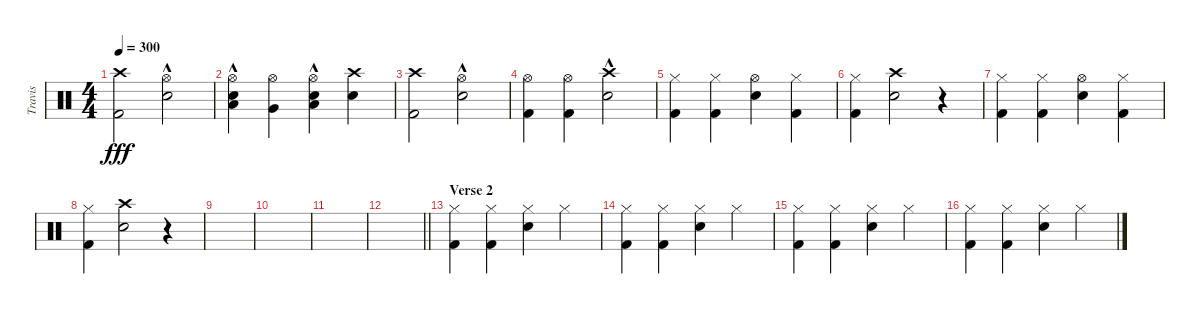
\track ("Travis" "Travis") {instrument percussion}
\staff {score}
\articulation defaults
\ts (4 4)
\tempo 300
\clef neutral
\ks c
("Crash high (hit)" "Kick (hit) 2").2{dy fff} ("Hi-Hat (open)" "Electric Snare (hit)"{hac}).2 |
("Hi-Hat (open)" "Low Tom (hit)" "Electric Snare (hit)"{hac}).4 ("Hi-Hat (open)" "Very Low Tom (hit)").4 ("Hi-Hat (open)" "Low Floor Tom (hit)" "Electric Snare (hit)"{hac}).4 ("Crash high (hit)" "Electric Snare (hit)").4 |
("Crash high (hit)" "Kick (hit) 2").2 ("Hi-Hat (open)" "Electric Snare (hit)"{hac}).2 |
("Hi-Hat (open)" "Kick (hit) 2").4 ("Hi-Hat (open)" "Kick (hit) 2").4 ("Crash high (hit)" "Electric Snare (hit)"{hac}).2 |
("Hi-Hat (closed)" "Kick (hit) 2").4 ("Hi-Hat (closed)" "Kick (hit) 2").4 ("Hi-Hat (open)" "Electric Snare (hit)").4 ("Hi-Hat (closed)" "Kick (hit) 2").4 |
("Hi-Hat (closed)" "Kick (hit) 2").4 ("Crash high (hit)" "Electric Snare (hit)").2 r.4 |
("Hi-Hat (closed)" "Kick (hit) 2").4 ("Hi-Hat (closed)" "Kick (hit) 2").4 ("Hi-Hat (open)" "Electric Snare (hit)").4 ("Hi-Hat (closed)" "Kick (hit) 2").4 |
("Hi-Hat (closed)" "Kick (hit) 2").4 ("Crash high (hit)" "Electric Snare (hit)").2 r.4 |
|
|
|
\barLineRight lightlight
|
\section ("" "Verse 2")
("Hi-Hat (closed)" "Kick (hit) 2").4 ("Hi-Hat (closed)" "Kick (hit) 2").4 ("Hi-Hat (closed)" "Electric Snare (hit)").4 "Hi-Hat (closed)".4 |
("Hi-Hat (closed)" "Kick (hit) 2").4 ("Hi-Hat (closed)" "Kick (hit) 2").4 ("Hi-Hat (closed)" "Electric Snare (hit)").4 "Hi-Hat (closed)".4 |
("Hi-Hat (closed)" "Kick (hit) 2").4 ("Hi-Hat (closed)" "Kick (hit) 2").4 ("Hi-Hat (closed)" "Electric Snare (hit)").4 "Hi-Hat (closed)".4 |
("Hi-Hat (closed)" "Kick (hit) 2").4 ("Hi-Hat (closed)" "Kick (hit) 2").4 ("Hi-Hat (closed)" "Electric Snare (hit)").4 "Hi-Hat (closed)".4
